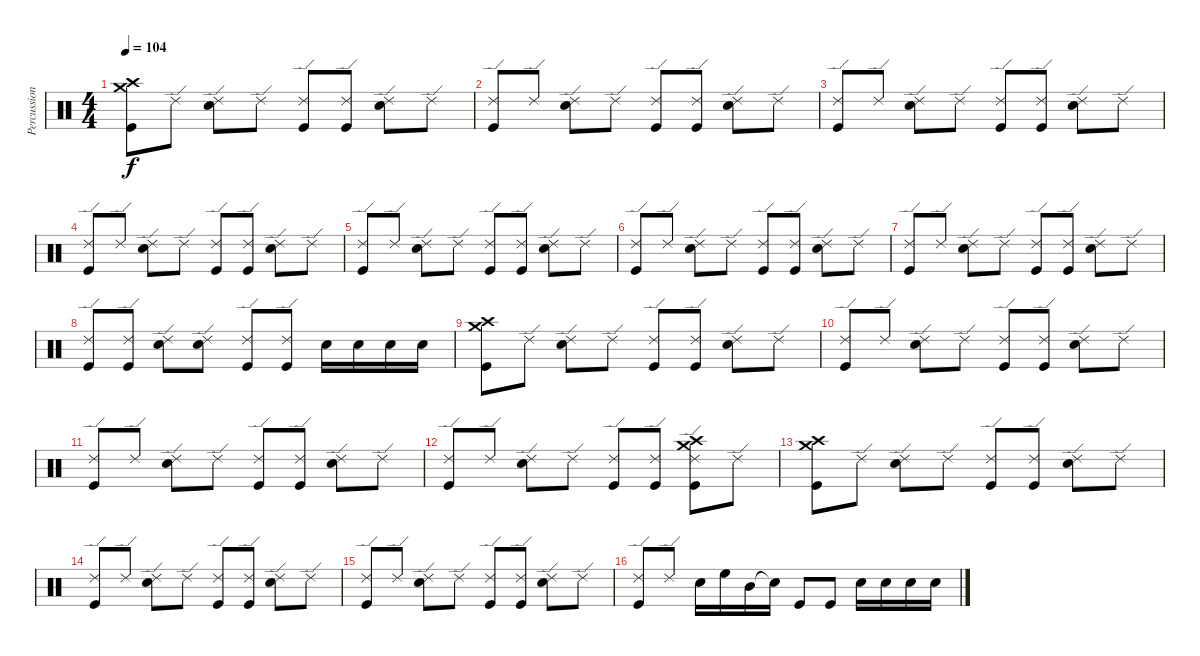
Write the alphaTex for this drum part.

\track ("Percussion" "Percussion") {instrument percussion}
\staff {score}
\articulation defaults
\ts (4 4)
\tempo 104
\clef neutral
\ks c
("Crash high (hit)" "Crash medium (hit)" "Kick (hit)").8{dy f} "Ride (edge) 2".8 ("Ride (edge) 2" "Snare (hit) 2").8 "Ride (edge) 2".8 ("Ride (edge) 2" "Kick (hit)").8 ("Ride (edge) 2" "Kick (hit)").8 ("Ride (edge) 2" "Snare (hit) 2").8 "Ride (edge) 2".8 |
("Ride (edge) 2" "Kick (hit)").8 "Ride (edge) 2".8 ("Ride (edge) 2" "Snare (hit) 2").8 "Ride (edge) 2".8 ("Ride (edge) 2" "Kick (hit)").8 ("Ride (edge) 2" "Kick (hit)").8 ("Ride (edge) 2" "Snare (hit) 2").8 "Ride (edge) 2".8 |
("Ride (edge) 2" "Kick (hit)").8 "Ride (edge) 2".8 ("Ride (edge) 2" "Snare (hit) 2").8 "Ride (edge) 2".8 ("Ride (edge) 2" "Kick (hit)").8 ("Ride (edge) 2" "Kick (hit)").8 ("Ride (edge) 2" "Snare (hit) 2").8 "Ride (edge) 2".8 |
("Ride (edge) 2" "Kick (hit)").8 "Ride (edge) 2".8 ("Ride (edge) 2" "Snare (hit) 2").8 "Ride (edge) 2".8 ("Ride (edge) 2" "Kick (hit)").8 ("Ride (edge) 2" "Kick (hit)").8 ("Ride (edge) 2" "Snare (hit) 2").8 "Ride (edge) 2".8 |
("Ride (edge) 2" "Kick (hit)").8 "Ride (edge) 2".8 ("Ride (edge) 2" "Snare (hit) 2").8 "Ride (edge) 2".8 ("Ride (edge) 2" "Kick (hit)").8 ("Ride (edge) 2" "Kick (hit)").8 ("Ride (edge) 2" "Snare (hit) 2").8 "Ride (edge) 2".8 |
("Ride (edge) 2" "Kick (hit)").8 "Ride (edge) 2".8 ("Ride (edge) 2" "Snare (hit) 2").8 "Ride (edge) 2".8 ("Ride (edge) 2" "Kick (hit)").8 ("Ride (edge) 2" "Kick (hit)").8 ("Ride (edge) 2" "Snare (hit) 2").8 "Ride (edge) 2".8 |
("Ride (edge) 2" "Kick (hit)").8 "Ride (edge) 2".8 ("Ride (edge) 2" "Snare (hit) 2").8 "Ride (edge) 2".8 ("Ride (edge) 2" "Kick (hit)").8 ("Ride (edge) 2" "Kick (hit)").8 ("Ride (edge) 2" "Snare (hit) 2").8 "Ride (edge) 2".8 |
("Ride (edge) 2" "Kick (hit)").8 ("Ride (edge) 2" "Kick (hit)").8 ("Ride (edge) 2" "Snare (hit) 2").8 ("Ride (edge) 2" "Snare (hit) 2").8 ("Ride (edge) 2" "Kick (hit)").8 ("Ride (edge) 2" "Kick (hit)").8 "Snare (hit) 2".16 "Snare (hit) 2".16 "Snare (hit) 2".16 "Snare (hit) 2".16 |
("Crash high (hit)" "Crash medium (hit)" "Kick (hit)").8 "Ride (edge) 2".8 ("Ride (edge) 2" "Snare (hit) 2").8 "Ride (edge) 2".8 ("Ride (edge) 2" "Kick (hit)").8 ("Ride (edge) 2" "Kick (hit)").8 ("Ride (edge) 2" "Snare (hit) 2").8 "Ride (edge) 2".8 |
("Ride (edge) 2" "Kick (hit)").8 "Ride (edge) 2".8 ("Ride (edge) 2" "Snare (hit) 2").8 "Ride (edge) 2".8 ("Ride (edge) 2" "Kick (hit)").8 ("Ride (edge) 2" "Kick (hit)").8 ("Ride (edge) 2" "Snare (hit) 2").8 "Ride (edge) 2".8 |
("Ride (edge) 2" "Kick (hit)").8 "Ride (edge) 2".8 ("Ride (edge) 2" "Snare (hit) 2").8 "Ride (edge) 2".8 ("Ride (edge) 2" "Kick (hit)").8 ("Ride (edge) 2" "Kick (hit)").8 ("Ride (edge) 2" "Snare (hit) 2").8 "Ride (edge) 2".8 |
("Ride (edge) 2" "Kick (hit)").8 "Ride (edge) 2".8 ("Ride (edge) 2" "Snare (hit) 2").8 "Ride (edge) 2".8 ("Ride (edge) 2" "Kick (hit)").8 ("Ride (edge) 2" "Kick (hit)").8 ("Ride (edge) 2" "Kick (hit)" "Crash medium (hit)" "Crash high (hit)").8 "Ride (edge) 2".8 |
("Crash high (hit)" "Crash medium (hit)" "Kick (hit)").8 "Ride (edge) 2".8 ("Ride (edge) 2" "Snare (hit) 2").8 "Ride (edge) 2".8 ("Ride (edge) 2" "Kick (hit)").8 ("Ride (edge) 2" "Kick (hit)").8 ("Ride (edge) 2" "Snare (hit) 2").8 "Ride (edge) 2".8 |
("Ride (edge) 2" "Kick (hit)").8 "Ride (edge) 2".8 ("Ride (edge) 2" "Snare (hit) 2").8 "Ride (edge) 2".8 ("Ride (edge) 2" "Kick (hit)").8 ("Ride (edge) 2" "Kick (hit)").8 ("Ride (edge) 2" "Snare (hit) 2").8 "Ride (edge) 2".8 |
("Ride (edge) 2" "Kick (hit)").8 "Ride (edge) 2".8 ("Ride (edge) 2" "Snare (hit) 2").8 "Ride (edge) 2".8 ("Ride (edge) 2" "Kick (hit)").8 ("Ride (edge) 2" "Kick (hit)").8 ("Ride (edge) 2" "Snare (hit) 2").8 "Ride (edge) 2".8 |
("Ride (edge) 2" "Kick (hit)").8 "Ride (edge) 2".8 "Snare (hit) 2".16 "High Floor Tom (hit)".16 "Mid Tom (hit)".16 "Snare (hit)"{t}.16 "Kick (hit)".8 "Kick (hit)".8 "Snare (hit) 2".16 "Snare (hit) 2".16 "Snare (hit) 2".16 "Snare (hit) 2".16
